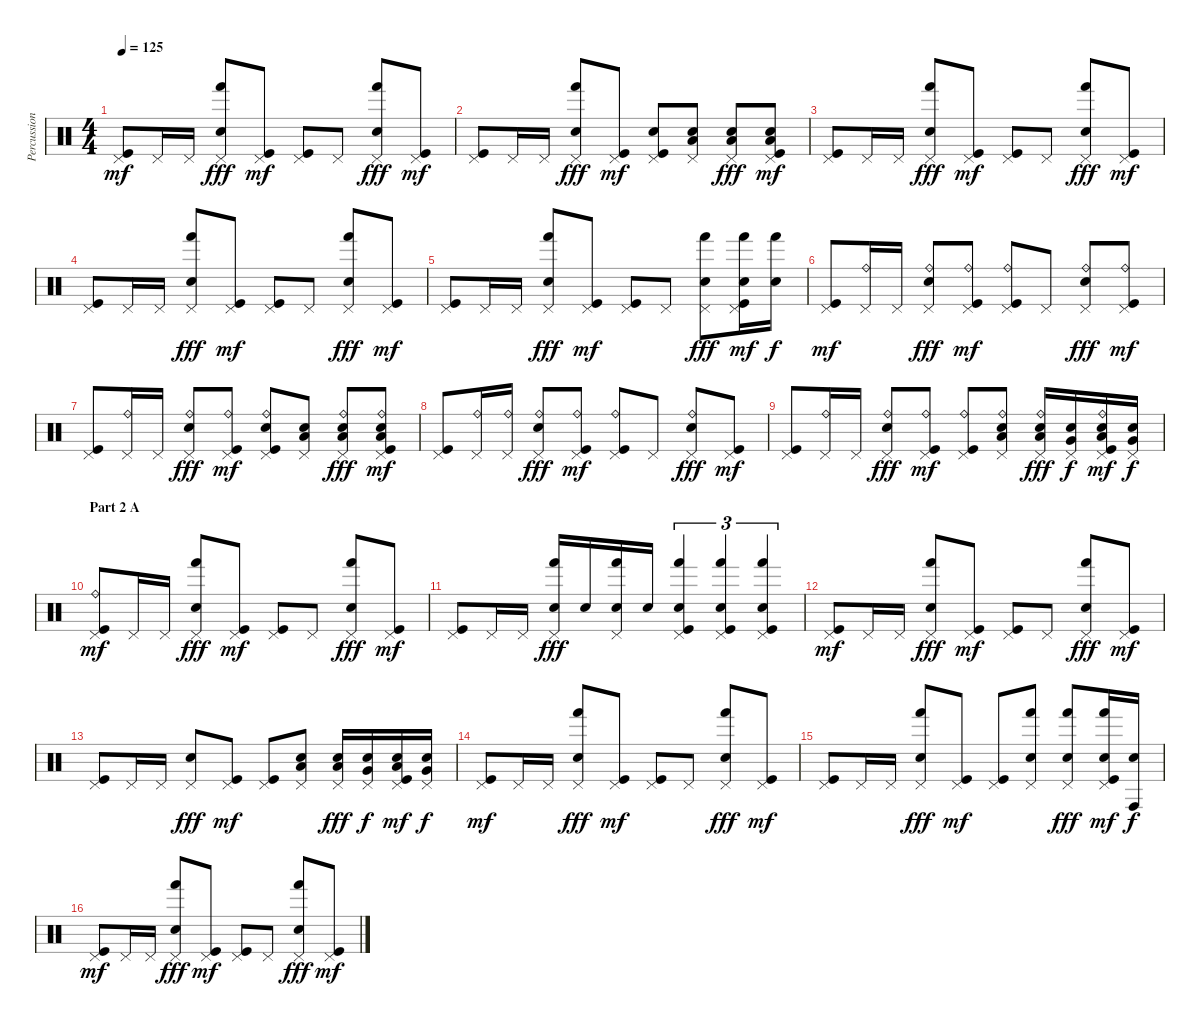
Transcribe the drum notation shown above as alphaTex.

\track ("Percussion" "Percussion") {instrument percussion}
\staff {score}
\articulation defaults
\ts (4 4)
\tempo 125
\clef neutral
\ks c
("Pedal Hi-Hat (hit)" "Kick (hit)").8{dy mf} "Pedal Hi-Hat (hit)".16 "Pedal Hi-Hat (hit)".16 ("Pedal Hi-Hat (hit)" "Hand (hit)" "Electric Snare (hit)").8{dy fff} ("Pedal Hi-Hat (hit)" "Kick (hit)").8{dy mf} ("Pedal Hi-Hat (hit)" "Kick (hit)").8 "Pedal Hi-Hat (hit)".8 ("Pedal Hi-Hat (hit)" "Hand (hit)" "Electric Snare (hit)").8{dy fff} ("Pedal Hi-Hat (hit)" "Kick (hit)").8{dy mf} |
("Pedal Hi-Hat (hit)" "Kick (hit)").8 "Pedal Hi-Hat (hit)".16 "Pedal Hi-Hat (hit)".16 ("Pedal Hi-Hat (hit)" "Hand (hit)" "Electric Snare (hit)").8{dy fff} ("Pedal Hi-Hat (hit)" "Kick (hit)").8{dy mf} ("Pedal Hi-Hat (hit)" "Electric Snare (hit)" "Kick (hit)").8 ("Pedal Hi-Hat (hit)" "Low Floor Tom (hit)" "Electric Snare (hit)").8 ("Pedal Hi-Hat (hit)" "Low Floor Tom (hit)" "Electric Snare (hit)").8{dy fff} ("Pedal Hi-Hat (hit)" "Low Floor Tom (hit)" "Electric Snare (hit)" "Kick (hit)").8{dy mf} |
("Pedal Hi-Hat (hit)" "Kick (hit)").8 "Pedal Hi-Hat (hit)".16 "Pedal Hi-Hat (hit)".16 ("Pedal Hi-Hat (hit)" "Hand (hit)" "Electric Snare (hit)").8{dy fff} ("Pedal Hi-Hat (hit)" "Kick (hit)").8{dy mf} ("Pedal Hi-Hat (hit)" "Kick (hit)").8 "Pedal Hi-Hat (hit)".8 ("Pedal Hi-Hat (hit)" "Hand (hit)" "Electric Snare (hit)").8{dy fff} ("Pedal Hi-Hat (hit)" "Kick (hit)").8{dy mf} |
("Pedal Hi-Hat (hit)" "Kick (hit)").8 "Pedal Hi-Hat (hit)".16 "Pedal Hi-Hat (hit)".16 ("Pedal Hi-Hat (hit)" "Hand (hit)" "Electric Snare (hit)").8{dy fff} ("Pedal Hi-Hat (hit)" "Kick (hit)").8{dy mf} ("Pedal Hi-Hat (hit)" "Kick (hit)").8 "Pedal Hi-Hat (hit)".8 ("Pedal Hi-Hat (hit)" "Hand (hit)" "Electric Snare (hit)").8{dy fff} ("Pedal Hi-Hat (hit)" "Kick (hit)").8{dy mf} |
("Pedal Hi-Hat (hit)" "Kick (hit)").8 "Pedal Hi-Hat (hit)".16 "Pedal Hi-Hat (hit)".16 ("Pedal Hi-Hat (hit)" "Hand (hit)" "Electric Snare (hit)").8{dy fff} ("Pedal Hi-Hat (hit)" "Kick (hit)").8{dy mf} ("Pedal Hi-Hat (hit)" "Kick (hit)").8 "Pedal Hi-Hat (hit)".8 ("Pedal Hi-Hat (hit)" "Hand (hit)" "Electric Snare (hit)").8{dy fff} ("Pedal Hi-Hat (hit)" "Hand (hit)" "Electric Snare (hit)" "Kick (hit)").16{dy mf} ("Hand (hit)" "Electric Snare (hit)").16{dy f} |
("Pedal Hi-Hat (hit)" "Kick (hit)").8{dy mf} ("Ride (bell)" "Pedal Hi-Hat (hit)").16 "Pedal Hi-Hat (hit)".16 ("Ride (bell)" "Pedal Hi-Hat (hit)" "Electric Snare (hit)").8{dy fff} ("Ride (bell)" "Pedal Hi-Hat (hit)" "Kick (hit)").8{dy mf} ("Ride (bell)" "Pedal Hi-Hat (hit)" "Kick (hit)").8 "Pedal Hi-Hat (hit)".8 ("Ride (bell)" "Pedal Hi-Hat (hit)" "Electric Snare (hit)").8{dy fff} ("Ride (bell)" "Pedal Hi-Hat (hit)" "Kick (hit)").8{dy mf} |
("Pedal Hi-Hat (hit)" "Kick (hit)").8 ("Ride (bell)" "Pedal Hi-Hat (hit)").16 "Pedal Hi-Hat (hit)".16 ("Ride (bell)" "Pedal Hi-Hat (hit)" "Electric Snare (hit)").8{dy fff} ("Ride (bell)" "Pedal Hi-Hat (hit)" "Kick (hit)").8{dy mf} ("Ride (bell)" "Pedal Hi-Hat (hit)" "Electric Snare (hit)" "Kick (hit)").8 ("Pedal Hi-Hat (hit)" "Low Floor Tom (hit)" "Electric Snare (hit)").8 ("Ride (bell)" "Pedal Hi-Hat (hit)" "Low Floor Tom (hit)" "Electric Snare (hit)").8{dy fff} ("Ride (bell)" "Pedal Hi-Hat (hit)" "Low Floor Tom (hit)" "Electric Snare (hit)" "Kick (hit)").8{dy mf} |
("Pedal Hi-Hat (hit)" "Kick (hit)").8 ("Ride (bell)" "Pedal Hi-Hat (hit)").16 ("Ride (bell)" "Pedal Hi-Hat (hit)").16 ("Ride (bell)" "Pedal Hi-Hat (hit)" "Electric Snare (hit)").8{dy fff} ("Ride (bell)" "Pedal Hi-Hat (hit)" "Kick (hit)").8{dy mf} ("Ride (bell)" "Pedal Hi-Hat (hit)" "Kick (hit)").8 "Pedal Hi-Hat (hit)".8 ("Ride (bell)" "Pedal Hi-Hat (hit)" "Electric Snare (hit)").8{dy fff} ("Pedal Hi-Hat (hit)" "Kick (hit)").8{dy mf} |
("Pedal Hi-Hat (hit)" "Kick (hit)").8 ("Ride (bell)" "Pedal Hi-Hat (hit)").16 "Pedal Hi-Hat (hit)".16 ("Ride (bell)" "Pedal Hi-Hat (hit)" "Electric Snare (hit)").8{dy fff} ("Ride (bell)" "Pedal Hi-Hat (hit)" "Kick (hit)").8{dy mf} ("Ride (bell)" "Pedal Hi-Hat (hit)" "Kick (hit)").8 ("Ride (bell)" "Pedal Hi-Hat (hit)" "Low Floor Tom (hit)" "Electric Snare (hit)").8 ("Ride (bell)" "Pedal Hi-Hat (hit)" "Low Floor Tom (hit)" "Electric Snare (hit)").16{dy fff} ("Pedal Hi-Hat (hit)" "Very Low Tom (hit)" "Electric Snare (hit)").16{dy f} ("Ride (bell)" "Pedal Hi-Hat (hit)" "Low Floor Tom (hit)" "Electric Snare (hit)" "Kick (hit)").16{dy mf} ("Pedal Hi-Hat (hit)" "Very Low Tom (hit)" "Electric Snare (hit)").16{dy f} |
\section ("" "Part 2 A")
("Ride (bell)" "Pedal Hi-Hat (hit)" "Kick (hit)").8{dy mf} "Pedal Hi-Hat (hit)".16 "Pedal Hi-Hat (hit)".16 ("Pedal Hi-Hat (hit)" "Hand (hit)" "Electric Snare (hit)").8{dy fff} ("Pedal Hi-Hat (hit)" "Kick (hit)").8{dy mf} ("Pedal Hi-Hat (hit)" "Kick (hit)").8 "Pedal Hi-Hat (hit)".8 ("Pedal Hi-Hat (hit)" "Hand (hit)" "Electric Snare (hit)").8{dy fff} ("Pedal Hi-Hat (hit)" "Kick (hit)").8{dy mf} |
("Pedal Hi-Hat (hit)" "Kick (hit)").8 "Pedal Hi-Hat (hit)".16 "Pedal Hi-Hat (hit)".16 ("Pedal Hi-Hat (hit)" "Hand (hit)" "Electric Snare (hit)").16{dy fff} "Electric Snare (hit)".16 ("Pedal Hi-Hat (hit)" "Hand (hit)" "Electric Snare (hit)").16 "Electric Snare (hit)".16 ("Pedal Hi-Hat (hit)" "Hand (hit)" "Electric Snare (hit)" "Kick (hit)").4{tu (3 2)} ("Pedal Hi-Hat (hit)" "Hand (hit)" "Electric Snare (hit)" "Kick (hit)").4{tu (3 2)} ("Pedal Hi-Hat (hit)" "Hand (hit)" "Electric Snare (hit)" "Kick (hit)").4{tu (3 2)} |
("Pedal Hi-Hat (hit)" "Kick (hit)").8{dy mf} "Pedal Hi-Hat (hit)".16 "Pedal Hi-Hat (hit)".16 ("Pedal Hi-Hat (hit)" "Hand (hit)" "Electric Snare (hit)").8{dy fff} ("Pedal Hi-Hat (hit)" "Kick (hit)").8{dy mf} ("Pedal Hi-Hat (hit)" "Kick (hit)").8 "Pedal Hi-Hat (hit)".8 ("Pedal Hi-Hat (hit)" "Hand (hit)" "Electric Snare (hit)").8{dy fff} ("Pedal Hi-Hat (hit)" "Kick (hit)").8{dy mf} |
("Pedal Hi-Hat (hit)" "Kick (hit)").8 "Pedal Hi-Hat (hit)".16 "Pedal Hi-Hat (hit)".16 ("Pedal Hi-Hat (hit)" "Electric Snare (hit)").8{dy fff} ("Pedal Hi-Hat (hit)" "Kick (hit)").8{dy mf} ("Pedal Hi-Hat (hit)" "Kick (hit)").8 ("Pedal Hi-Hat (hit)" "Low Floor Tom (hit)" "Electric Snare (hit)").8 ("Pedal Hi-Hat (hit)" "Low Floor Tom (hit)" "Electric Snare (hit)").16{dy fff} ("Pedal Hi-Hat (hit)" "Very Low Tom (hit)" "Electric Snare (hit)").16{dy f} ("Pedal Hi-Hat (hit)" "Low Floor Tom (hit)" "Electric Snare (hit)" "Kick (hit)").16{dy mf} ("Pedal Hi-Hat (hit)" "Very Low Tom (hit)" "Electric Snare (hit)").16{dy f} |
("Pedal Hi-Hat (hit)" "Kick (hit)").8{dy mf} "Pedal Hi-Hat (hit)".16 "Pedal Hi-Hat (hit)".16 ("Pedal Hi-Hat (hit)" "Hand (hit)" "Electric Snare (hit)").8{dy fff} ("Pedal Hi-Hat (hit)" "Kick (hit)").8{dy mf} ("Pedal Hi-Hat (hit)" "Kick (hit)").8 "Pedal Hi-Hat (hit)".8 ("Pedal Hi-Hat (hit)" "Hand (hit)" "Electric Snare (hit)").8{dy fff} ("Pedal Hi-Hat (hit)" "Kick (hit)").8{dy mf} |
("Pedal Hi-Hat (hit)" "Kick (hit)").8 "Pedal Hi-Hat (hit)".16 "Pedal Hi-Hat (hit)".16 ("Pedal Hi-Hat (hit)" "Hand (hit)" "Electric Snare (hit)").8{dy fff} ("Pedal Hi-Hat (hit)" "Kick (hit)").8{dy mf} ("Pedal Hi-Hat (hit)" "Kick (hit)").8 ("Pedal Hi-Hat (hit)" "Hand (hit)" "Electric Snare (hit)").8 ("Pedal Hi-Hat (hit)" "Hand (hit)" "Electric Snare (hit)").8{dy fff} ("Pedal Hi-Hat (hit)" "Hand (hit)" "Electric Snare (hit)" "Kick (hit)").16{dy mf} ("Conga high (hit)" "Electric Snare (hit)").16{dy f} |
("Pedal Hi-Hat (hit)" "Kick (hit)").8{dy mf} "Pedal Hi-Hat (hit)".16 "Pedal Hi-Hat (hit)".16 ("Pedal Hi-Hat (hit)" "Hand (hit)" "Electric Snare (hit)").8{dy fff} ("Pedal Hi-Hat (hit)" "Kick (hit)").8{dy mf} ("Pedal Hi-Hat (hit)" "Kick (hit)").8 "Pedal Hi-Hat (hit)".8 ("Pedal Hi-Hat (hit)" "Hand (hit)" "Electric Snare (hit)").8{dy fff} ("Pedal Hi-Hat (hit)" "Kick (hit)").8{dy mf}
